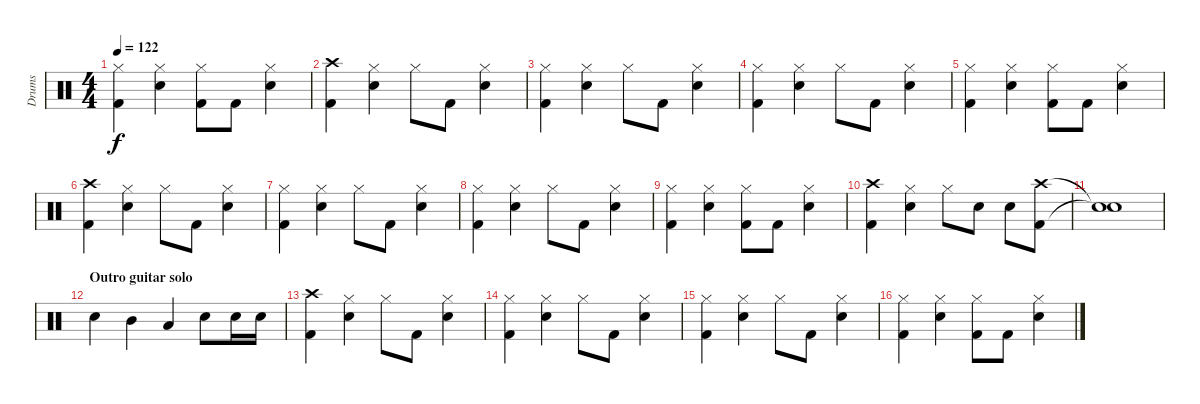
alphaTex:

\track ("Drums" "Drums") {instrument percussion}
\staff {score}
\articulation defaults
\ts (4 4)
\tempo 122
\clef neutral
\ks c
("Hi-Hat (closed)" "Kick (hit) 2").4{dy f} ("Hi-Hat (closed)" "Electric Snare (hit)").4 ("Hi-Hat (closed)" "Kick (hit) 2").8 "Kick (hit) 2".8 ("Hi-Hat (closed)" "Electric Snare (hit)").4 |
("Crash high (hit)" "Kick (hit) 2").4 ("Hi-Hat (closed)" "Electric Snare (hit)").4 "Hi-Hat (closed)".8 "Kick (hit) 2".8 ("Hi-Hat (closed)" "Electric Snare (hit)").4 |
("Hi-Hat (closed)" "Kick (hit) 2").4 ("Hi-Hat (closed)" "Electric Snare (hit)").4 "Hi-Hat (closed)".8 "Kick (hit) 2".8 ("Hi-Hat (closed)" "Electric Snare (hit)").4 |
("Hi-Hat (closed)" "Kick (hit) 2").4 ("Hi-Hat (closed)" "Electric Snare (hit)").4 "Hi-Hat (closed)".8 "Kick (hit) 2".8 ("Hi-Hat (closed)" "Electric Snare (hit)").4 |
("Hi-Hat (closed)" "Kick (hit) 2").4 ("Hi-Hat (closed)" "Electric Snare (hit)").4 ("Hi-Hat (closed)" "Kick (hit) 2").8 "Kick (hit) 2".8 ("Hi-Hat (closed)" "Electric Snare (hit)").4 |
("Crash high (hit)" "Kick (hit) 2").4 ("Hi-Hat (closed)" "Electric Snare (hit)").4 "Hi-Hat (closed)".8 "Kick (hit) 2".8 ("Hi-Hat (closed)" "Electric Snare (hit)").4 |
("Hi-Hat (closed)" "Kick (hit) 2").4 ("Hi-Hat (closed)" "Electric Snare (hit)").4 "Hi-Hat (closed)".8 "Kick (hit) 2".8 ("Hi-Hat (closed)" "Electric Snare (hit)").4 |
("Hi-Hat (closed)" "Kick (hit) 2").4 ("Hi-Hat (closed)" "Electric Snare (hit)").4 "Hi-Hat (closed)".8 "Kick (hit) 2".8 ("Hi-Hat (closed)" "Electric Snare (hit)").4 |
("Hi-Hat (closed)" "Kick (hit) 2").4 ("Hi-Hat (closed)" "Electric Snare (hit)").4 ("Hi-Hat (closed)" "Kick (hit) 2").8 "Kick (hit) 2".8 ("Hi-Hat (closed)" "Electric Snare (hit)").4 |
("Crash high (hit)" "Kick (hit) 2").4 ("Hi-Hat (closed)" "Electric Snare (hit)").4 "Hi-Hat (closed)".8 "Electric Snare (hit)".8 "Electric Snare (hit)".8 ("Crash high (hit)" "Kick (hit) 2").8 |
("Snare (hit)"{t} "Snare (hit)"{t}).1 |
\section ("" "Outro guitar solo")
"Electric Snare (hit)".4 "Mid Tom (hit)".4 "Low Tom (hit)".4 "Electric Snare (hit)".8 "Electric Snare (hit)".16 "Electric Snare (hit)".16 |
("Crash high (hit)" "Kick (hit) 2").4 ("Hi-Hat (closed)" "Electric Snare (hit)").4 "Hi-Hat (closed)".8 "Kick (hit) 2".8 ("Hi-Hat (closed)" "Electric Snare (hit)").4 |
("Hi-Hat (closed)" "Kick (hit) 2").4 ("Hi-Hat (closed)" "Electric Snare (hit)").4 "Hi-Hat (closed)".8 "Kick (hit) 2".8 ("Hi-Hat (closed)" "Electric Snare (hit)").4 |
("Hi-Hat (closed)" "Kick (hit) 2").4 ("Hi-Hat (closed)" "Electric Snare (hit)").4 "Hi-Hat (closed)".8 "Kick (hit) 2".8 ("Hi-Hat (closed)" "Electric Snare (hit)").4 |
("Hi-Hat (closed)" "Kick (hit) 2").4 ("Hi-Hat (closed)" "Electric Snare (hit)").4 ("Hi-Hat (closed)" "Kick (hit) 2").8 "Kick (hit) 2".8 ("Hi-Hat (closed)" "Electric Snare (hit)").4
